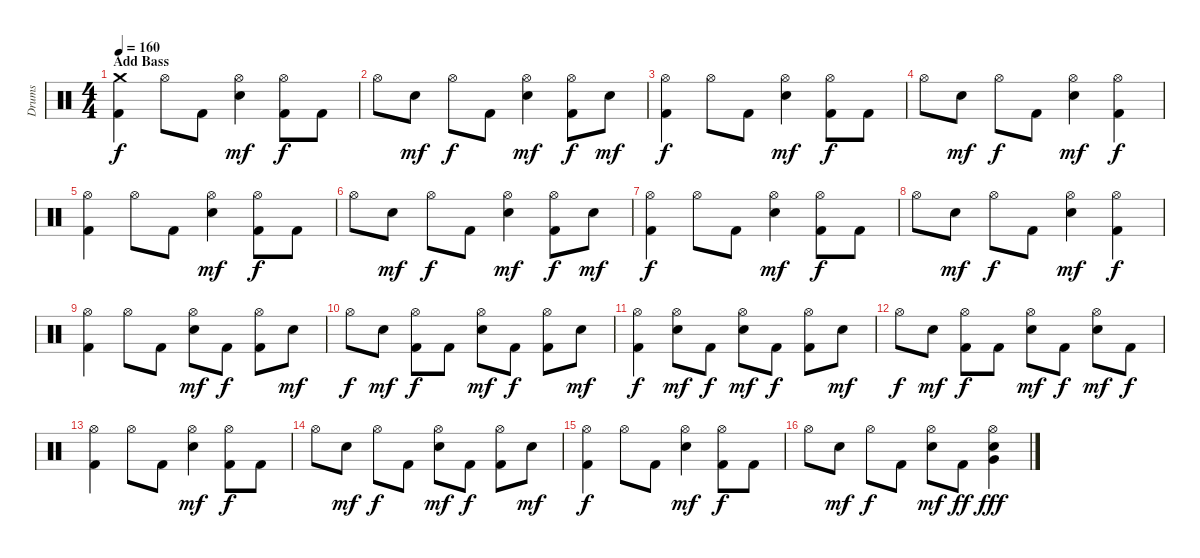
\track ("Drums" "Drums") {instrument percussion}
\staff {score}
\articulation defaults
\ts (4 4)
\section ("" "Add Bass")
\tempo 160
\clef neutral
\ks c
("Crash medium (hit)" "Kick (hit) 2").4{dy f} "Hi-Hat (open)".8 "Kick (hit) 2".8 ("Hi-Hat (open)" "Electric Snare (hit)").4{dy mf} ("Hi-Hat (open)" "Kick (hit) 2").8{dy f} "Kick (hit) 2".8 |
"Hi-Hat (open)".8 "Electric Snare (hit)".8{dy mf} "Hi-Hat (open)".8{dy f} "Kick (hit) 2".8 ("Hi-Hat (open)" "Electric Snare (hit)").4{dy mf} ("Hi-Hat (open)" "Kick (hit) 2").8{dy f} "Electric Snare (hit)".8{dy mf} |
("Hi-Hat (open)" "Kick (hit) 2").4{dy f} "Hi-Hat (open)".8 "Kick (hit) 2".8 ("Hi-Hat (open)" "Electric Snare (hit)").4{dy mf} ("Hi-Hat (open)" "Kick (hit) 2").8{dy f} "Kick (hit) 2".8 |
"Hi-Hat (open)".8 "Electric Snare (hit)".8{dy mf} "Hi-Hat (open)".8{dy f} "Kick (hit) 2".8 ("Hi-Hat (open)" "Electric Snare (hit)").4{dy mf} ("Hi-Hat (open)" "Kick (hit) 2").4{dy f} |
("Hi-Hat (open)" "Kick (hit) 2").4 "Hi-Hat (open)".8 "Kick (hit) 2".8 ("Hi-Hat (open)" "Electric Snare (hit)").4{dy mf} ("Hi-Hat (open)" "Kick (hit) 2").8{dy f} "Kick (hit) 2".8 |
"Hi-Hat (open)".8 "Electric Snare (hit)".8{dy mf} "Hi-Hat (open)".8{dy f} "Kick (hit) 2".8 ("Hi-Hat (open)" "Electric Snare (hit)").4{dy mf} ("Hi-Hat (open)" "Kick (hit) 2").8{dy f} "Electric Snare (hit)".8{dy mf} |
("Hi-Hat (open)" "Kick (hit) 2").4{dy f} "Hi-Hat (open)".8 "Kick (hit) 2".8 ("Hi-Hat (open)" "Electric Snare (hit)").4{dy mf} ("Hi-Hat (open)" "Kick (hit) 2").8{dy f} "Kick (hit) 2".8 |
"Hi-Hat (open)".8 "Electric Snare (hit)".8{dy mf} "Hi-Hat (open)".8{dy f} "Kick (hit) 2".8 ("Hi-Hat (open)" "Electric Snare (hit)").4{dy mf} ("Hi-Hat (open)" "Kick (hit) 2").4{dy f} |
("Hi-Hat (open)" "Kick (hit) 2").4 "Hi-Hat (open)".8 "Kick (hit) 2".8 ("Hi-Hat (open)" "Electric Snare (hit)").8{dy mf} "Kick (hit) 2".8{dy f} ("Hi-Hat (open)" "Kick (hit) 2").8 "Electric Snare (hit)".8{dy mf} |
"Hi-Hat (open)".8{dy f} "Electric Snare (hit)".8{dy mf} ("Hi-Hat (open)" "Kick (hit) 2").8{dy f} "Kick (hit) 2".8 ("Hi-Hat (open)" "Electric Snare (hit)").8{dy mf} "Kick (hit) 2".8{dy f} ("Hi-Hat (open)" "Kick (hit) 2").8 "Electric Snare (hit)".8{dy mf} |
("Hi-Hat (open)" "Kick (hit) 2").4{dy f} ("Hi-Hat (open)" "Electric Snare (hit)").8{dy mf} "Kick (hit) 2".8{dy f} ("Hi-Hat (open)" "Electric Snare (hit)").8{dy mf} "Kick (hit) 2".8{dy f} ("Hi-Hat (open)" "Kick (hit) 2").8 "Electric Snare (hit)".8{dy mf} |
"Hi-Hat (open)".8{dy f} "Electric Snare (hit)".8{dy mf} ("Hi-Hat (open)" "Kick (hit) 2").8{dy f} "Kick (hit) 2".8 ("Hi-Hat (open)" "Electric Snare (hit)").8{dy mf} "Kick (hit) 2".8{dy f} ("Hi-Hat (open)" "Electric Snare (hit)").8{dy mf} "Kick (hit) 2".8{dy f} |
("Hi-Hat (open)" "Kick (hit) 2").4 "Hi-Hat (open)".8 "Kick (hit) 2".8 ("Hi-Hat (open)" "Electric Snare (hit)").4{dy mf} ("Hi-Hat (open)" "Kick (hit) 2").8{dy f} "Kick (hit) 2".8 |
"Hi-Hat (open)".8 "Electric Snare (hit)".8{dy mf} "Hi-Hat (open)".8{dy f} "Kick (hit) 2".8 ("Hi-Hat (open)" "Electric Snare (hit)").8{dy mf} "Kick (hit) 2".8{dy f} ("Hi-Hat (open)" "Kick (hit) 2").8 "Electric Snare (hit)".8{dy mf} |
("Hi-Hat (open)" "Kick (hit) 2").4{dy f} "Hi-Hat (open)".8 "Kick (hit) 2".8 ("Hi-Hat (open)" "Electric Snare (hit)").4{dy mf} ("Hi-Hat (open)" "Kick (hit) 2").8{dy f} "Kick (hit) 2".8 |
"Hi-Hat (open)".8 "Electric Snare (hit)".8{dy mf} "Hi-Hat (open)".8{dy f} "Kick (hit) 2".8 ("Hi-Hat (open)" "Electric Snare (hit)").8{dy mf} "Kick (hit) 2".8{dy ff} ("Hi-Hat (open)" "Electric Snare (hit)" "Very Low Tom (hit)").4{dy fff}
